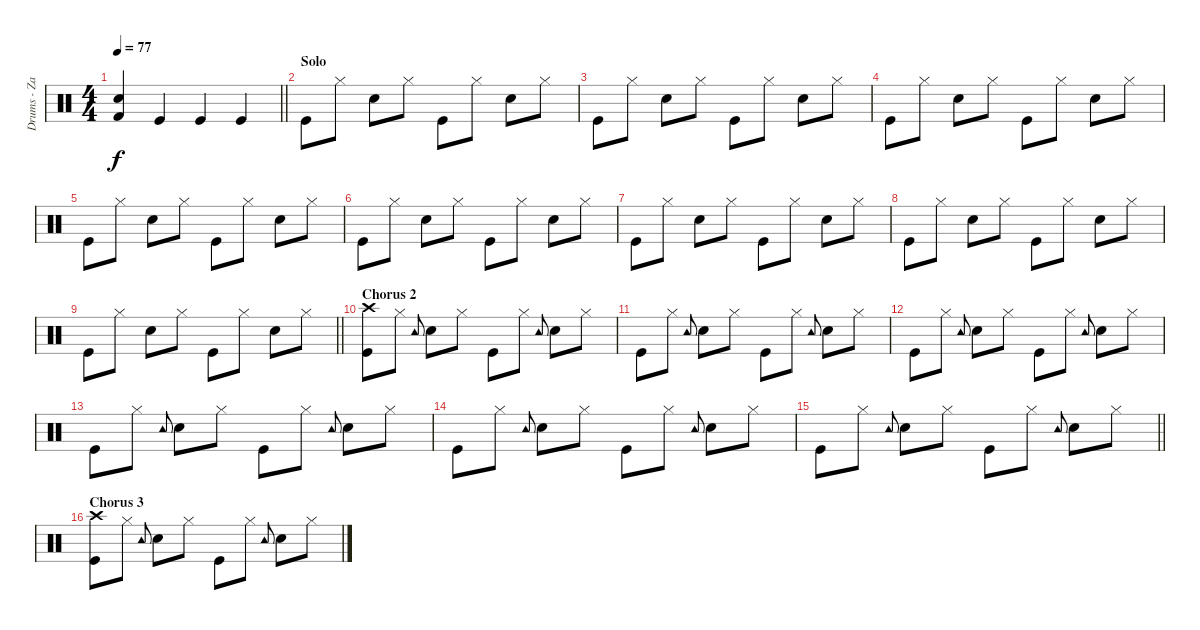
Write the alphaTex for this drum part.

\track ("Drums - Zakk Starkey" "Drums - Za") {instrument percussion}
\staff {score}
\articulation defaults
\ts (4 4)
\tempo 77
\clef neutral
\barLineRight lightlight
\ks c
("Snare (hit) 2" "Kick (hit) 2").4{dy f} "Kick (hit)".4 "Kick (hit)".4 "Kick (hit)".4 |
\section ("" "Solo")
"Kick (hit)".8 "Hi-Hat (closed)".8 "Snare (hit) 2".8 "Hi-Hat (closed)".8 "Kick (hit)".8 "Hi-Hat (closed)".8 "Snare (hit) 2".8 "Hi-Hat (closed)".8 |
"Kick (hit)".8 "Hi-Hat (closed)".8 "Snare (hit) 2".8 "Hi-Hat (closed)".8 "Kick (hit)".8 "Hi-Hat (closed)".8 "Snare (hit) 2".8 "Hi-Hat (closed)".8 |
"Kick (hit)".8 "Hi-Hat (closed)".8 "Snare (hit) 2".8 "Hi-Hat (closed)".8 "Kick (hit)".8 "Hi-Hat (closed)".8 "Snare (hit) 2".8 "Hi-Hat (closed)".8 |
"Kick (hit)".8 "Hi-Hat (closed)".8 "Snare (hit) 2".8 "Hi-Hat (closed)".8 "Kick (hit)".8 "Hi-Hat (closed)".8 "Snare (hit) 2".8 "Hi-Hat (closed)".8 |
"Kick (hit)".8 "Hi-Hat (closed)".8 "Snare (hit) 2".8 "Hi-Hat (closed)".8 "Kick (hit)".8 "Hi-Hat (closed)".8 "Snare (hit) 2".8 "Hi-Hat (closed)".8 |
"Kick (hit)".8 "Hi-Hat (closed)".8 "Snare (hit) 2".8 "Hi-Hat (closed)".8 "Kick (hit)".8 "Hi-Hat (closed)".8 "Snare (hit) 2".8 "Hi-Hat (closed)".8 |
"Kick (hit)".8 "Hi-Hat (closed)".8 "Snare (hit) 2".8 "Hi-Hat (closed)".8 "Kick (hit)".8 "Hi-Hat (closed)".8 "Snare (hit) 2".8 "Hi-Hat (closed)".8 |
\barLineRight lightlight "Kick (hit)".8 "Hi-Hat (closed)".8 "Snare (hit) 2".8 "Hi-Hat (closed)".8 "Kick (hit)".8 "Hi-Hat (closed)".8 "Snare (hit) 2".8 "Hi-Hat (closed)".8
|
\section ("" "Chorus 2")
("Crash high (hit)" "Kick (hit)").8 "Hi-Hat (closed)".8 "Tambourine (hit)".8{gr onbeat} "Snare (hit) 2".8 "Hi-Hat (closed)".8 "Kick (hit)".8 "Hi-Hat (closed)".8 "Tambourine (hit)".8{gr onbeat} "Snare (hit) 2".8 "Hi-Hat (closed)".8 |
"Kick (hit)".8 "Hi-Hat (closed)".8 "Tambourine (hit)".8{gr onbeat} "Snare (hit) 2".8 "Hi-Hat (closed)".8 "Kick (hit)".8 "Hi-Hat (closed)".8 "Tambourine (hit)".8{gr onbeat} "Snare (hit) 2".8 "Hi-Hat (closed)".8 |
"Kick (hit)".8 "Hi-Hat (closed)".8 "Tambourine (hit)".8{gr onbeat} "Snare (hit) 2".8 "Hi-Hat (closed)".8 "Kick (hit)".8 "Hi-Hat (closed)".8 "Tambourine (hit)".8{gr onbeat} "Snare (hit) 2".8 "Hi-Hat (closed)".8 |
"Kick (hit)".8 "Hi-Hat (closed)".8 "Tambourine (hit)".8{gr onbeat} "Snare (hit) 2".8 "Hi-Hat (closed)".8 "Kick (hit)".8 "Hi-Hat (closed)".8 "Tambourine (hit)".8{gr onbeat} "Snare (hit) 2".8 "Hi-Hat (closed)".8 |
"Kick (hit)".8 "Hi-Hat (closed)".8 "Tambourine (hit)".8{gr onbeat} "Snare (hit) 2".8 "Hi-Hat (closed)".8 "Kick (hit)".8 "Hi-Hat (closed)".8 "Tambourine (hit)".8{gr onbeat} "Snare (hit) 2".8 "Hi-Hat (closed)".8 |
\barLineRight lightlight "Kick (hit)".8 "Hi-Hat (closed)".8 "Tambourine (hit)".8{gr onbeat} "Snare (hit) 2".8 "Hi-Hat (closed)".8 "Kick (hit)".8 "Hi-Hat (closed)".8 "Tambourine (hit)".8{gr onbeat} "Snare (hit) 2".8 "Hi-Hat (closed)".8
|
\section ("" "Chorus 3")
("Crash high (hit)" "Kick (hit)").8 "Hi-Hat (closed)".8 "Tambourine (hit)".8{gr onbeat} "Snare (hit) 2".8 "Hi-Hat (closed)".8 "Kick (hit)".8 "Hi-Hat (closed)".8 "Tambourine (hit)".8{gr onbeat} "Snare (hit) 2".8 "Hi-Hat (closed)".8
